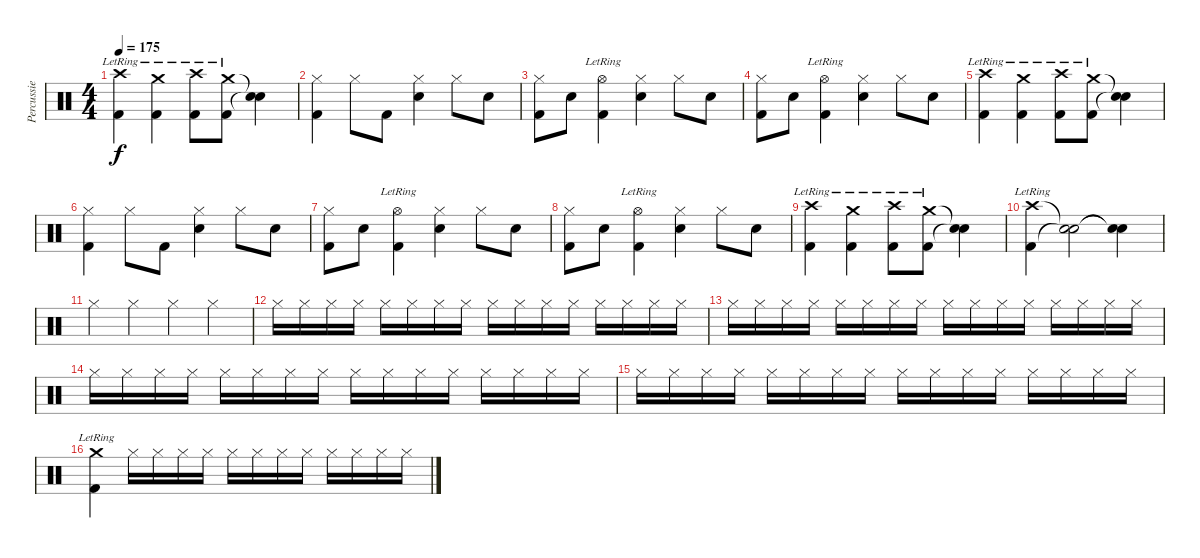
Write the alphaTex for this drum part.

\track ("Percussie" "Percussie") {instrument percussion}
\staff {score}
\articulation defaults
\ts (4 4)
\tempo 175
\clef neutral
\ks c
("Crash high (hit)"{lr} "Kick (hit) 2").4{dy f} ("Crash medium (hit)"{lr} "Kick (hit) 2").4 ("Crash high (hit)"{lr} "Kick (hit) 2").8 ("Crash medium (hit)"{lr} "Kick (hit) 2").8 ("Snare (hit)"{t} "Snare (hit)"{t}).4 |
("Hi-Hat (closed)" "Kick (hit) 2").4 "Hi-Hat (closed)".8 "Kick (hit) 2".8 ("Hi-Hat (closed)" "Snare (hit) 2").4 "Hi-Hat (closed)".8 "Snare (hit) 2".8 |
("Hi-Hat (closed)" "Kick (hit) 2").8 "Snare (hit) 2".8 ("Hi-Hat (open)"{lr} "Kick (hit) 2").4 ("Hi-Hat (closed)" "Snare (hit) 2").4 "Hi-Hat (closed)".8 "Snare (hit) 2".8 |
("Hi-Hat (closed)" "Kick (hit) 2").8 "Snare (hit) 2".8 ("Hi-Hat (open)"{lr} "Kick (hit) 2").4 ("Hi-Hat (closed)" "Snare (hit) 2").4 "Hi-Hat (closed)".8 "Snare (hit) 2".8 |
("Crash high (hit)"{lr} "Kick (hit) 2").4 ("Crash medium (hit)"{lr} "Kick (hit) 2").4 ("Crash high (hit)"{lr} "Kick (hit) 2").8 ("Crash medium (hit)"{lr} "Kick (hit) 2").8 ("Snare (hit)"{t} "Snare (hit)"{t}).4 |
("Hi-Hat (closed)" "Kick (hit) 2").4 "Hi-Hat (closed)".8 "Kick (hit) 2".8 ("Hi-Hat (closed)" "Snare (hit) 2").4 "Hi-Hat (closed)".8 "Snare (hit) 2".8 |
("Hi-Hat (closed)" "Kick (hit) 2").8 "Snare (hit) 2".8 ("Hi-Hat (open)"{lr} "Kick (hit) 2").4 ("Hi-Hat (closed)" "Snare (hit) 2").4 "Hi-Hat (closed)".8 "Snare (hit) 2".8 |
("Hi-Hat (closed)" "Kick (hit) 2").8 "Snare (hit) 2".8 ("Hi-Hat (open)"{lr} "Kick (hit) 2").4 ("Hi-Hat (closed)" "Snare (hit) 2").4 "Hi-Hat (closed)".8 "Snare (hit) 2".8 |
("Crash high (hit)"{lr} "Kick (hit) 2").4 ("Crash medium (hit)"{lr} "Kick (hit) 2").4 ("Crash high (hit)"{lr} "Kick (hit) 2").8 ("Crash medium (hit)"{lr} "Kick (hit) 2").8 ("Snare (hit)"{t} "Snare (hit)"{t}).4 |
("Crash high (hit)"{lr} "Kick (hit) 2").4 ("Snare (hit)"{t} "Snare (hit)"{t}).2 ("Snare (hit)"{t} "Snare (hit)"{t}).4 |
"Hi-Hat (closed)".4 "Hi-Hat (closed)".4 "Hi-Hat (closed)".4 "Hi-Hat (closed)".4 |
"Hi-Hat (closed)".16 "Hi-Hat (closed)".16 "Hi-Hat (closed)".16 "Hi-Hat (closed)".16 "Hi-Hat (closed)".16 "Hi-Hat (closed)".16 "Hi-Hat (closed)".16 "Hi-Hat (closed)".16 "Hi-Hat (closed)".16 "Hi-Hat (closed)".16 "Hi-Hat (closed)".16 "Hi-Hat (closed)".16 "Hi-Hat (closed)".16 "Hi-Hat (closed)".16 "Hi-Hat (closed)".16 "Hi-Hat (closed)".16 |
"Hi-Hat (closed)".16 "Hi-Hat (closed)".16 "Hi-Hat (closed)".16 "Hi-Hat (closed)".16 "Hi-Hat (closed)".16 "Hi-Hat (closed)".16 "Hi-Hat (closed)".16 "Hi-Hat (closed)".16 "Hi-Hat (closed)".16 "Hi-Hat (closed)".16 "Hi-Hat (closed)".16 "Hi-Hat (closed)".16 "Hi-Hat (closed)".16 "Hi-Hat (closed)".16 "Hi-Hat (closed)".16 "Hi-Hat (closed)".16 |
"Hi-Hat (closed)".16 "Hi-Hat (closed)".16 "Hi-Hat (closed)".16 "Hi-Hat (closed)".16 "Hi-Hat (closed)".16 "Hi-Hat (closed)".16 "Hi-Hat (closed)".16 "Hi-Hat (closed)".16 "Hi-Hat (closed)".16 "Hi-Hat (closed)".16 "Hi-Hat (closed)".16 "Hi-Hat (closed)".16 "Hi-Hat (closed)".16 "Hi-Hat (closed)".16 "Hi-Hat (closed)".16 "Hi-Hat (closed)".16 |
"Hi-Hat (closed)".16 "Hi-Hat (closed)".16 "Hi-Hat (closed)".16 "Hi-Hat (closed)".16 "Hi-Hat (closed)".16 "Hi-Hat (closed)".16 "Hi-Hat (closed)".16 "Hi-Hat (closed)".16 "Hi-Hat (closed)".16 "Hi-Hat (closed)".16 "Hi-Hat (closed)".16 "Hi-Hat (closed)".16 "Hi-Hat (closed)".16 "Hi-Hat (closed)".16 "Hi-Hat (closed)".16 "Hi-Hat (closed)".16 |
("Crash medium (hit)"{lr} "Kick (hit) 2").4 "Hi-Hat (closed)".16 "Hi-Hat (closed)".16 "Hi-Hat (closed)".16 "Hi-Hat (closed)".16 "Hi-Hat (closed)".16 "Hi-Hat (closed)".16 "Hi-Hat (closed)".16 "Hi-Hat (closed)".16 "Hi-Hat (closed)".16 "Hi-Hat (closed)".16 "Hi-Hat (closed)".16 "Hi-Hat (closed)".16
